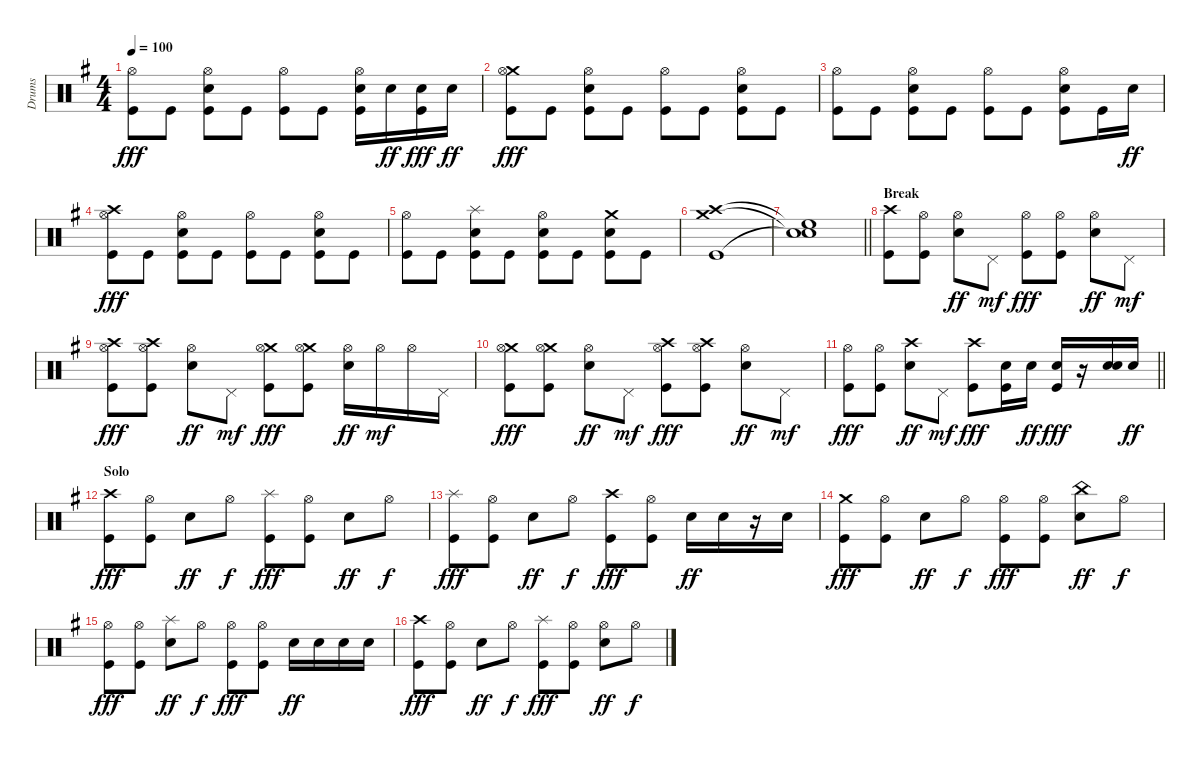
\track ("Drums" "Drums") {instrument percussion}
\staff {score}
\articulation defaults
\ts (4 4)
\tempo 100
\clef neutral
\ks eminor
("Hi-Hat (open)" "Kick (hit)").8{dy fff} "Kick (hit)".8 ("Hi-Hat (open)" "Snare (hit) 2" "Kick (hit)").8 "Kick (hit)".8 ("Hi-Hat (open)" "Kick (hit)").8 "Kick (hit)".8 ("Hi-Hat (open)" "Snare (hit) 2" "Kick (hit)").16 "Snare (hit) 2".16{dy ff} ("Snare (hit) 2" "Kick (hit)").16{dy fff} "Snare (hit) 2".16{dy ff} |
("Crash medium (hit)" "Hi-Hat (open)" "Kick (hit)").8{dy fff} "Kick (hit)".8 ("Hi-Hat (open)" "Snare (hit) 2" "Kick (hit)").8 "Kick (hit)".8 ("Hi-Hat (open)" "Kick (hit)").8 "Kick (hit)".8 ("Hi-Hat (open)" "Snare (hit) 2" "Kick (hit)").8 "Kick (hit)".8 |
("Hi-Hat (open)" "Kick (hit)").8 "Kick (hit)".8 ("Hi-Hat (open)" "Snare (hit) 2" "Kick (hit)").8 "Kick (hit)".8 ("Hi-Hat (open)" "Kick (hit)").8 "Kick (hit)".8 ("Hi-Hat (open)" "Snare (hit) 2" "Kick (hit)").8 "Kick (hit)".16 "Snare (hit) 2".16{dy ff} |
("Crash high (hit)" "Hi-Hat (open)" "Kick (hit)").8{dy fff} "Kick (hit)".8 ("Hi-Hat (open)" "Snare (hit) 2" "Kick (hit)").8 "Kick (hit)".8 ("Hi-Hat (open)" "Kick (hit)").8 "Kick (hit)".8 ("Hi-Hat (open)" "Snare (hit) 2" "Kick (hit)").8 "Kick (hit)".8 |
("Hi-Hat (open)" "Kick (hit)").8 "Kick (hit)".8 ("Splash (hit)" "Snare (hit) 2" "Kick (hit)").8 "Kick (hit)".8 ("Hi-Hat (open)" "Snare (hit) 2" "Kick (hit)").8 "Kick (hit)".8 ("Crash medium (hit)" "Snare (hit) 2" "Kick (hit)").8 "Kick (hit)".8 |
("Crash high (hit)" "Crash medium (hit)" "Kick (hit)").1 |
\barLineRight lightlight
("High Floor Tom (hit)"{t} "Snare (hit)"{t} "Snare (hit)"{t}).1 |
\section ("" "Break")
("Crash high (hit)" "Kick (hit)").8 ("Hi-Hat (open)" "Kick (hit)").8 ("Hi-Hat (open)" "Snare (hit) 2").8{dy ff} "Pedal Hi-Hat (hit)".8{dy mf} ("Hi-Hat (open)" "Kick (hit)").8{dy fff} ("Hi-Hat (open)" "Kick (hit)").8 ("Hi-Hat (open)" "Snare (hit) 2").8{dy ff} "Pedal Hi-Hat (hit)".8{dy mf} |
("Crash high (hit)" "Hi-Hat (open)" "Kick (hit)").8{dy fff} ("Crash high (hit)" "Hi-Hat (open)" "Kick (hit)").8 ("Hi-Hat (open)" "Snare (hit) 2").8{dy ff} "Pedal Hi-Hat (hit)".8{dy mf} ("Crash medium (hit)" "Hi-Hat (open)" "Kick (hit)").8{dy fff} ("Crash medium (hit)" "Hi-Hat (open)" "Kick (hit)").8 ("Hi-Hat (open)" "Snare (hit) 2").16{dy ff} "Hi-Hat (open)".16{dy mf} "Hi-Hat (open)".16 "Pedal Hi-Hat (hit)".16 |
("Crash medium (hit)" "Hi-Hat (open)" "Kick (hit)").8{dy fff} ("Crash medium (hit)" "Hi-Hat (open)" "Kick (hit)").8 ("Hi-Hat (open)" "Snare (hit) 2").8{dy ff} "Pedal Hi-Hat (hit)".8{dy mf} ("Crash high (hit)" "Hi-Hat (open)" "Kick (hit)").8{dy fff} ("Crash high (hit)" "Hi-Hat (open)" "Kick (hit)").8 ("Hi-Hat (open)" "Snare (hit) 2").8{dy ff} "Pedal Hi-Hat (hit)".8{dy mf} |
\barLineRight lightlight
("Hi-Hat (open)" "Kick (hit)").8{dy fff} ("Hi-Hat (open)" "Kick (hit)").8 ("Crash high (hit)" "Snare (hit) 2").8{dy ff} "Pedal Hi-Hat (hit)".8{dy mf} ("Crash high (hit)" "Kick (hit)").8{dy fff} ("Snare (hit) 2" "Kick (hit)").16 "Snare (hit) 2".16{dy ff} ("Snare (hit) 2" "Kick (hit)").16{dy fff} r.16 ("Snare (hit) 2" "Snare (hit) 2").16 "Snare (hit) 2".16{dy ff} |
\section ("" "Solo")
("Crash high (hit)" "Kick (hit)").8{dy fff} ("Hi-Hat (open)" "Kick (hit)").8 "Snare (hit) 2".8{dy ff} "Hi-Hat (open)".8{dy f} ("Splash (hit)" "Kick (hit)").8{dy fff} ("Hi-Hat (open)" "Kick (hit)").8 "Snare (hit) 2".8{dy ff} "Hi-Hat (open)".8{dy f} |
("Splash (hit)" "Kick (hit)").8{dy fff} ("Hi-Hat (open)" "Kick (hit)").8 "Snare (hit) 2".8{dy ff} "Hi-Hat (open)".8{dy f} ("Crash high (hit)" "Kick (hit)").8{dy fff} ("Hi-Hat (open)" "Kick (hit)").8 "Snare (hit) 2".16{dy ff} "Snare (hit) 2".16 r.16 "Snare (hit) 2".16 |
("Crash medium (hit)" "Kick (hit)").8{dy fff} ("Hi-Hat (open)" "Kick (hit)").8 "Snare (hit) 2".8{dy ff} "Hi-Hat (open)".8{dy f} ("Hi-Hat (open)" "Kick (hit)").8{dy fff} ("Hi-Hat (open)" "Kick (hit)").8 ("China (hit)" "Snare (hit) 2").8{dy ff} "Hi-Hat (open)".8{dy f} |
("Hi-Hat (open)" "Kick (hit)").8{dy fff} ("Hi-Hat (open)" "Kick (hit)").8 ("Splash (hit)" "Snare (hit) 2").8{dy ff} "Hi-Hat (open)".8{dy f} ("Hi-Hat (open)" "Kick (hit)").8{dy fff} ("Hi-Hat (open)" "Kick (hit)").8 "Snare (hit) 2".16{dy ff} "Snare (hit) 2".16 "Snare (hit) 2".16 "Snare (hit) 2".16 |
("Crash high (hit)" "Kick (hit)").8{dy fff} ("Hi-Hat (open)" "Kick (hit)").8 "Snare (hit) 2".8{dy ff} "Hi-Hat (open)".8{dy f} ("Splash (hit)" "Kick (hit)").8{dy fff} ("Hi-Hat (open)" "Kick (hit)").8 ("Hi-Hat (open)" "Snare (hit) 2").8{dy ff} "Hi-Hat (open)".8{dy f}
